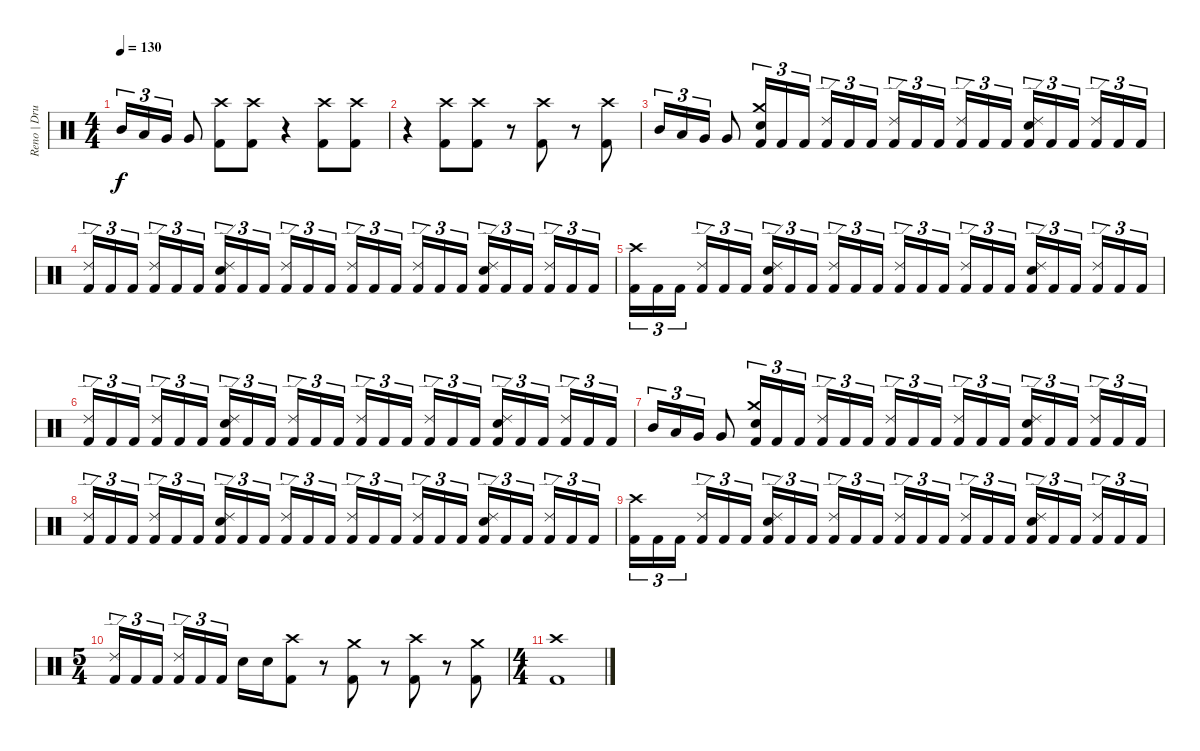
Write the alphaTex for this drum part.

\track ("Reno | Drums" "Reno | Dru") {instrument percussion}
\staff {score}
\articulation defaults
\ts (4 4)
\tempo 130
\clef neutral
\ks c "Mid Tom (hit)".16{tu (3 2) dy f} "Low Tom (hit)".16{tu (3 2)} "Very Low Tom (hit)".16{tu (3 2)} "Very Low Tom (hit)".8
("Crash high (hit)" "Kick (hit) 2").8 ("Crash high (hit)" "Kick (hit) 2").8 r.4 ("Crash high (hit)" "Kick (hit) 2").8 ("Crash high (hit)" "Kick (hit) 2").8 |
r.4 ("Crash high (hit)" "Kick (hit) 2").8 ("Crash high (hit)" "Kick (hit) 2").8 r.8 ("Crash high (hit)" "Kick (hit) 2").8 r.8 ("Crash high (hit)" "Kick (hit) 2").8 |
"Mid Tom (hit)".16{tu (3 2)} "Low Tom (hit)".16{tu (3 2)} "Very Low Tom (hit)".16{tu (3 2)} "Very Low Tom (hit)".8 ("Crash medium (hit)" "Electric Snare (hit)" "Kick (hit) 2").16{tu (3 2)} "Kick (hit) 2".16{tu (3 2)} "Kick (hit) 2".16{tu (3 2)} ("Ride (edge) 2" "Kick (hit) 2").16{tu (3 2)} "Kick (hit) 2".16{tu (3 2)} "Kick (hit) 2".16{tu (3 2)} ("Ride (edge) 2" "Kick (hit) 2").16{tu (3 2)} "Kick (hit) 2".16{tu (3 2)} "Kick (hit) 2".16{tu (3 2)} ("Ride (edge) 2" "Kick (hit) 2").16{tu (3 2)} "Kick (hit) 2".16{tu (3 2)} "Kick (hit) 2".16{tu (3 2)} ("Ride (edge) 2" "Electric Snare (hit)" "Kick (hit) 2").16{tu (3 2)} "Kick (hit) 2".16{tu (3 2)} "Kick (hit) 2".16{tu (3 2)} ("Ride (edge) 2" "Kick (hit) 2").16{tu (3 2)} "Kick (hit) 2".16{tu (3 2)} "Kick (hit) 2".16{tu (3 2)} |
("Ride (edge) 2" "Kick (hit) 2").16{tu (3 2)} "Kick (hit) 2".16{tu (3 2)} "Kick (hit) 2".16{tu (3 2)} ("Ride (edge) 2" "Kick (hit) 2").16{tu (3 2)} "Kick (hit) 2".16{tu (3 2)} "Kick (hit) 2".16{tu (3 2)} ("Ride (edge) 2" "Electric Snare (hit)" "Kick (hit) 2").16{tu (3 2)} "Kick (hit) 2".16{tu (3 2)} "Kick (hit) 2".16{tu (3 2)} ("Ride (edge) 2" "Kick (hit) 2").16{tu (3 2)} "Kick (hit) 2".16{tu (3 2)} "Kick (hit) 2".16{tu (3 2)} ("Ride (edge) 2" "Kick (hit) 2").16{tu (3 2)} "Kick (hit) 2".16{tu (3 2)} "Kick (hit) 2".16{tu (3 2)} ("Ride (edge) 2" "Kick (hit) 2").16{tu (3 2)} "Kick (hit) 2".16{tu (3 2)} "Kick (hit) 2".16{tu (3 2)} ("Ride (edge) 2" "Electric Snare (hit)" "Kick (hit) 2").16{tu (3 2)} "Kick (hit) 2".16{tu (3 2)} "Kick (hit) 2".16{tu (3 2)} ("Ride (edge) 2" "Kick (hit) 2").16{tu (3 2)} "Kick (hit) 2".16{tu (3 2)} "Kick (hit) 2".16{tu (3 2)} |
("Crash high (hit)" "Kick (hit) 2").16{tu (3 2)} "Kick (hit) 2".16{tu (3 2)} "Kick (hit) 2".16{tu (3 2)} ("Ride (edge) 2" "Kick (hit) 2").16{tu (3 2)} "Kick (hit) 2".16{tu (3 2)} "Kick (hit) 2".16{tu (3 2)} ("Ride (edge) 2" "Electric Snare (hit)" "Kick (hit) 2").16{tu (3 2)} "Kick (hit) 2".16{tu (3 2)} "Kick (hit) 2".16{tu (3 2)} ("Ride (edge) 2" "Kick (hit) 2").16{tu (3 2)} "Kick (hit) 2".16{tu (3 2)} "Kick (hit) 2".16{tu (3 2)} ("Ride (edge) 2" "Kick (hit) 2").16{tu (3 2)} "Kick (hit) 2".16{tu (3 2)} "Kick (hit) 2".16{tu (3 2)} ("Ride (edge) 2" "Kick (hit) 2").16{tu (3 2)} "Kick (hit) 2".16{tu (3 2)} "Kick (hit) 2".16{tu (3 2)} ("Ride (edge) 2" "Electric Snare (hit)" "Kick (hit) 2").16{tu (3 2)} "Kick (hit) 2".16{tu (3 2)} "Kick (hit) 2".16{tu (3 2)} ("Ride (edge) 2" "Kick (hit) 2").16{tu (3 2)} "Kick (hit) 2".16{tu (3 2)} "Kick (hit) 2".16{tu (3 2)} |
("Ride (edge) 2" "Kick (hit) 2").16{tu (3 2)} "Kick (hit) 2".16{tu (3 2)} "Kick (hit) 2".16{tu (3 2)} ("Ride (edge) 2" "Kick (hit) 2").16{tu (3 2)} "Kick (hit) 2".16{tu (3 2)} "Kick (hit) 2".16{tu (3 2)} ("Ride (edge) 2" "Electric Snare (hit)" "Kick (hit) 2").16{tu (3 2)} "Kick (hit) 2".16{tu (3 2)} "Kick (hit) 2".16{tu (3 2)} ("Ride (edge) 2" "Kick (hit) 2").16{tu (3 2)} "Kick (hit) 2".16{tu (3 2)} "Kick (hit) 2".16{tu (3 2)} ("Ride (edge) 2" "Kick (hit) 2").16{tu (3 2)} "Kick (hit) 2".16{tu (3 2)} "Kick (hit) 2".16{tu (3 2)} ("Ride (edge) 2" "Kick (hit) 2").16{tu (3 2)} "Kick (hit) 2".16{tu (3 2)} "Kick (hit) 2".16{tu (3 2)} ("Ride (edge) 2" "Electric Snare (hit)" "Kick (hit) 2").16{tu (3 2)} "Kick (hit) 2".16{tu (3 2)} "Kick (hit) 2".16{tu (3 2)} ("Ride (edge) 2" "Kick (hit) 2").16{tu (3 2)} "Kick (hit) 2".16{tu (3 2)} "Kick (hit) 2".16{tu (3 2)} |
"Mid Tom (hit)".16{tu (3 2)} "Low Tom (hit)".16{tu (3 2)} "Very Low Tom (hit)".16{tu (3 2)} "Very Low Tom (hit)".8 ("Crash medium (hit)" "Electric Snare (hit)" "Kick (hit) 2").16{tu (3 2)} "Kick (hit) 2".16{tu (3 2)} "Kick (hit) 2".16{tu (3 2)} ("Ride (edge) 2" "Kick (hit) 2").16{tu (3 2)} "Kick (hit) 2".16{tu (3 2)} "Kick (hit) 2".16{tu (3 2)} ("Ride (edge) 2" "Kick (hit) 2").16{tu (3 2)} "Kick (hit) 2".16{tu (3 2)} "Kick (hit) 2".16{tu (3 2)} ("Ride (edge) 2" "Kick (hit) 2").16{tu (3 2)} "Kick (hit) 2".16{tu (3 2)} "Kick (hit) 2".16{tu (3 2)} ("Ride (edge) 2" "Electric Snare (hit)" "Kick (hit) 2").16{tu (3 2)} "Kick (hit) 2".16{tu (3 2)} "Kick (hit) 2".16{tu (3 2)} ("Ride (edge) 2" "Kick (hit) 2").16{tu (3 2)} "Kick (hit) 2".16{tu (3 2)} "Kick (hit) 2".16{tu (3 2)} |
("Ride (edge) 2" "Kick (hit) 2").16{tu (3 2)} "Kick (hit) 2".16{tu (3 2)} "Kick (hit) 2".16{tu (3 2)} ("Ride (edge) 2" "Kick (hit) 2").16{tu (3 2)} "Kick (hit) 2".16{tu (3 2)} "Kick (hit) 2".16{tu (3 2)} ("Ride (edge) 2" "Electric Snare (hit)" "Kick (hit) 2").16{tu (3 2)} "Kick (hit) 2".16{tu (3 2)} "Kick (hit) 2".16{tu (3 2)} ("Ride (edge) 2" "Kick (hit) 2").16{tu (3 2)} "Kick (hit) 2".16{tu (3 2)} "Kick (hit) 2".16{tu (3 2)} ("Ride (edge) 2" "Kick (hit) 2").16{tu (3 2)} "Kick (hit) 2".16{tu (3 2)} "Kick (hit) 2".16{tu (3 2)} ("Ride (edge) 2" "Kick (hit) 2").16{tu (3 2)} "Kick (hit) 2".16{tu (3 2)} "Kick (hit) 2".16{tu (3 2)} ("Ride (edge) 2" "Electric Snare (hit)" "Kick (hit) 2").16{tu (3 2)} "Kick (hit) 2".16{tu (3 2)} "Kick (hit) 2".16{tu (3 2)} ("Ride (edge) 2" "Kick (hit) 2").16{tu (3 2)} "Kick (hit) 2".16{tu (3 2)} "Kick (hit) 2".16{tu (3 2)} |
("Crash high (hit)" "Kick (hit) 2").16{tu (3 2)} "Kick (hit) 2".16{tu (3 2)} "Kick (hit) 2".16{tu (3 2)} ("Ride (edge) 2" "Kick (hit) 2").16{tu (3 2)} "Kick (hit) 2".16{tu (3 2)} "Kick (hit) 2".16{tu (3 2)} ("Ride (edge) 2" "Electric Snare (hit)" "Kick (hit) 2").16{tu (3 2)} "Kick (hit) 2".16{tu (3 2)} "Kick (hit) 2".16{tu (3 2)} ("Ride (edge) 2" "Kick (hit) 2").16{tu (3 2)} "Kick (hit) 2".16{tu (3 2)} "Kick (hit) 2".16{tu (3 2)} ("Ride (edge) 2" "Kick (hit) 2").16{tu (3 2)} "Kick (hit) 2".16{tu (3 2)} "Kick (hit) 2".16{tu (3 2)} ("Ride (edge) 2" "Kick (hit) 2").16{tu (3 2)} "Kick (hit) 2".16{tu (3 2)} "Kick (hit) 2".16{tu (3 2)} ("Ride (edge) 2" "Electric Snare (hit)" "Kick (hit) 2").16{tu (3 2)} "Kick (hit) 2".16{tu (3 2)} "Kick (hit) 2".16{tu (3 2)} ("Ride (edge) 2" "Kick (hit) 2").16{tu (3 2)} "Kick (hit) 2".16{tu (3 2)} "Kick (hit) 2".16{tu (3 2)} |
\ts (5 4)
("Ride (edge) 2" "Kick (hit) 2").16{tu (3 2)} "Kick (hit) 2".16{tu (3 2)} "Kick (hit) 2".16{tu (3 2)} ("Ride (edge) 2" "Kick (hit) 2").16{tu (3 2)} "Kick (hit) 2".16{tu (3 2)} "Kick (hit) 2".16{tu (3 2)} "Electric Snare (hit)".16 "Electric Snare (hit)".16 ("Crash high (hit)" "Kick (hit) 2").8 r.8 ("Crash medium (hit)" "Kick (hit) 2").8 r.8 ("Crash high (hit)" "Kick (hit) 2").8 r.8 ("Crash medium (hit)" "Kick (hit) 2").8 |
\ts (4 4)
("Crash high (hit)" "Kick (hit) 2").1
